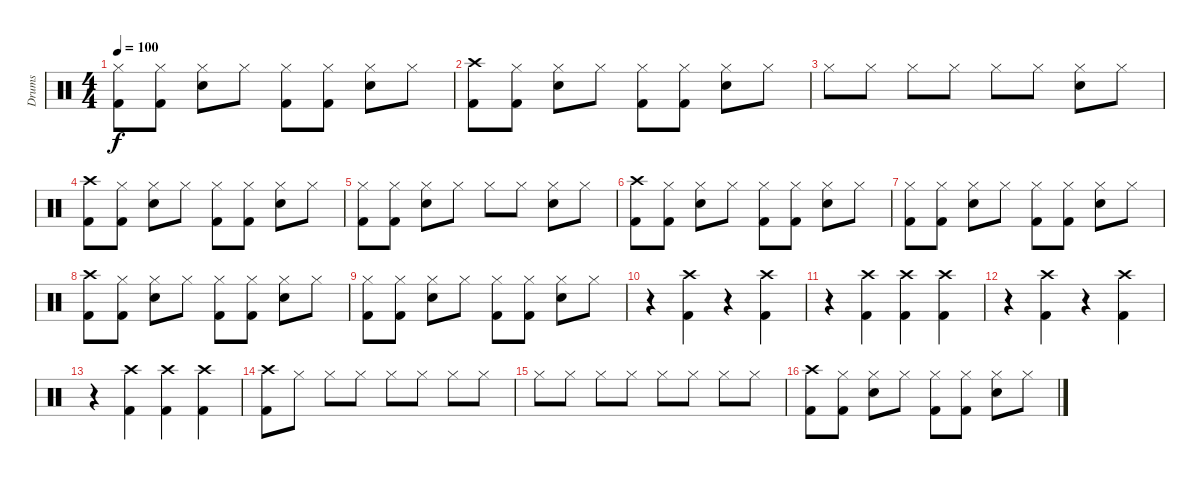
\track ("Drums" "Drums") {instrument percussion}
\staff {score}
\articulation defaults
\ts (4 4)
\tempo 100
\clef neutral
\ks c
("Hi-Hat (closed)" "Kick (hit) 2").8{dy f} ("Hi-Hat (closed)" "Kick (hit) 2").8 ("Hi-Hat (closed)" "Electric Snare (hit)").8 "Hi-Hat (closed)".8 ("Hi-Hat (closed)" "Kick (hit) 2").8 ("Hi-Hat (closed)" "Kick (hit) 2").8 ("Hi-Hat (closed)" "Electric Snare (hit)").8 "Hi-Hat (closed)".8 |
("Crash high (hit)" "Kick (hit) 2").8 ("Hi-Hat (closed)" "Kick (hit) 2").8 ("Hi-Hat (closed)" "Electric Snare (hit)").8 "Hi-Hat (closed)".8 ("Hi-Hat (closed)" "Kick (hit) 2").8 ("Hi-Hat (closed)" "Kick (hit) 2").8 ("Hi-Hat (closed)" "Electric Snare (hit)").8 "Hi-Hat (closed)".8 |
"Hi-Hat (closed)".8 "Hi-Hat (closed)".8 "Hi-Hat (closed)".8 "Hi-Hat (closed)".8 "Hi-Hat (closed)".8 "Hi-Hat (closed)".8 ("Hi-Hat (closed)" "Electric Snare (hit)").8 "Hi-Hat (closed)".8 |
("Crash high (hit)" "Kick (hit) 2").8 ("Hi-Hat (closed)" "Kick (hit) 2").8 ("Hi-Hat (closed)" "Electric Snare (hit)").8 "Hi-Hat (closed)".8 ("Hi-Hat (closed)" "Kick (hit) 2").8 ("Hi-Hat (closed)" "Kick (hit) 2").8 ("Hi-Hat (closed)" "Electric Snare (hit)").8 "Hi-Hat (closed)".8 |
("Hi-Hat (closed)" "Kick (hit) 2").8 ("Hi-Hat (closed)" "Kick (hit) 2").8 ("Hi-Hat (closed)" "Electric Snare (hit)").8 "Hi-Hat (closed)".8 "Hi-Hat (closed)".8 "Hi-Hat (closed)".8 ("Hi-Hat (closed)" "Electric Snare (hit)").8 "Hi-Hat (closed)".8 |
("Crash high (hit)" "Kick (hit) 2").8 ("Hi-Hat (closed)" "Kick (hit) 2").8 ("Hi-Hat (closed)" "Electric Snare (hit)").8 "Hi-Hat (closed)".8 ("Hi-Hat (closed)" "Kick (hit) 2").8 ("Hi-Hat (closed)" "Kick (hit) 2").8 ("Hi-Hat (closed)" "Electric Snare (hit)").8 "Hi-Hat (closed)".8 |
("Hi-Hat (closed)" "Kick (hit) 2").8 ("Hi-Hat (closed)" "Kick (hit) 2").8 ("Hi-Hat (closed)" "Electric Snare (hit)").8 "Hi-Hat (closed)".8 ("Hi-Hat (closed)" "Kick (hit) 2").8 ("Hi-Hat (closed)" "Kick (hit) 2").8 ("Hi-Hat (closed)" "Electric Snare (hit)").8 "Hi-Hat (closed)".8 |
("Crash high (hit)" "Kick (hit) 2").8 ("Hi-Hat (closed)" "Kick (hit) 2").8 ("Hi-Hat (closed)" "Electric Snare (hit)").8 "Hi-Hat (closed)".8 ("Hi-Hat (closed)" "Kick (hit) 2").8 ("Hi-Hat (closed)" "Kick (hit) 2").8 ("Hi-Hat (closed)" "Electric Snare (hit)").8 "Hi-Hat (closed)".8 |
("Hi-Hat (closed)" "Kick (hit) 2").8 ("Hi-Hat (closed)" "Kick (hit) 2").8 ("Hi-Hat (closed)" "Electric Snare (hit)").8 "Hi-Hat (closed)".8 ("Hi-Hat (closed)" "Kick (hit) 2").8 ("Hi-Hat (closed)" "Kick (hit) 2").8 ("Hi-Hat (closed)" "Electric Snare (hit)").8 "Hi-Hat (closed)".8 |
r.4 ("Crash high (hit)" "Kick (hit) 2").4 r.4 ("Crash high (hit)" "Kick (hit) 2").4 |
r.4 ("Crash high (hit)" "Kick (hit) 2").4 ("Crash high (hit)" "Kick (hit) 2").4 ("Crash high (hit)" "Kick (hit) 2").4 |
r.4 ("Crash high (hit)" "Kick (hit) 2").4 r.4 ("Crash high (hit)" "Kick (hit) 2").4 |
r.4 ("Crash high (hit)" "Kick (hit) 2").4 ("Crash high (hit)" "Kick (hit) 2").4 ("Crash high (hit)" "Kick (hit) 2").4 |
("Crash high (hit)" "Kick (hit) 2").8 "Hi-Hat (closed)".8 "Hi-Hat (closed)".8 "Hi-Hat (closed)".8 "Hi-Hat (closed)".8 "Hi-Hat (closed)".8 "Hi-Hat (closed)".8 "Hi-Hat (closed)".8 |
"Hi-Hat (closed)".8 "Hi-Hat (closed)".8 "Hi-Hat (closed)".8 "Hi-Hat (closed)".8 "Hi-Hat (closed)".8 "Hi-Hat (closed)".8 "Hi-Hat (closed)".8 "Hi-Hat (closed)".8 |
("Crash high (hit)" "Kick (hit) 2").8 ("Hi-Hat (closed)" "Kick (hit) 2").8 ("Hi-Hat (closed)" "Electric Snare (hit)").8 "Hi-Hat (closed)".8 ("Hi-Hat (closed)" "Kick (hit) 2").8 ("Hi-Hat (closed)" "Kick (hit) 2").8 ("Hi-Hat (closed)" "Electric Snare (hit)").8 "Hi-Hat (closed)".8
